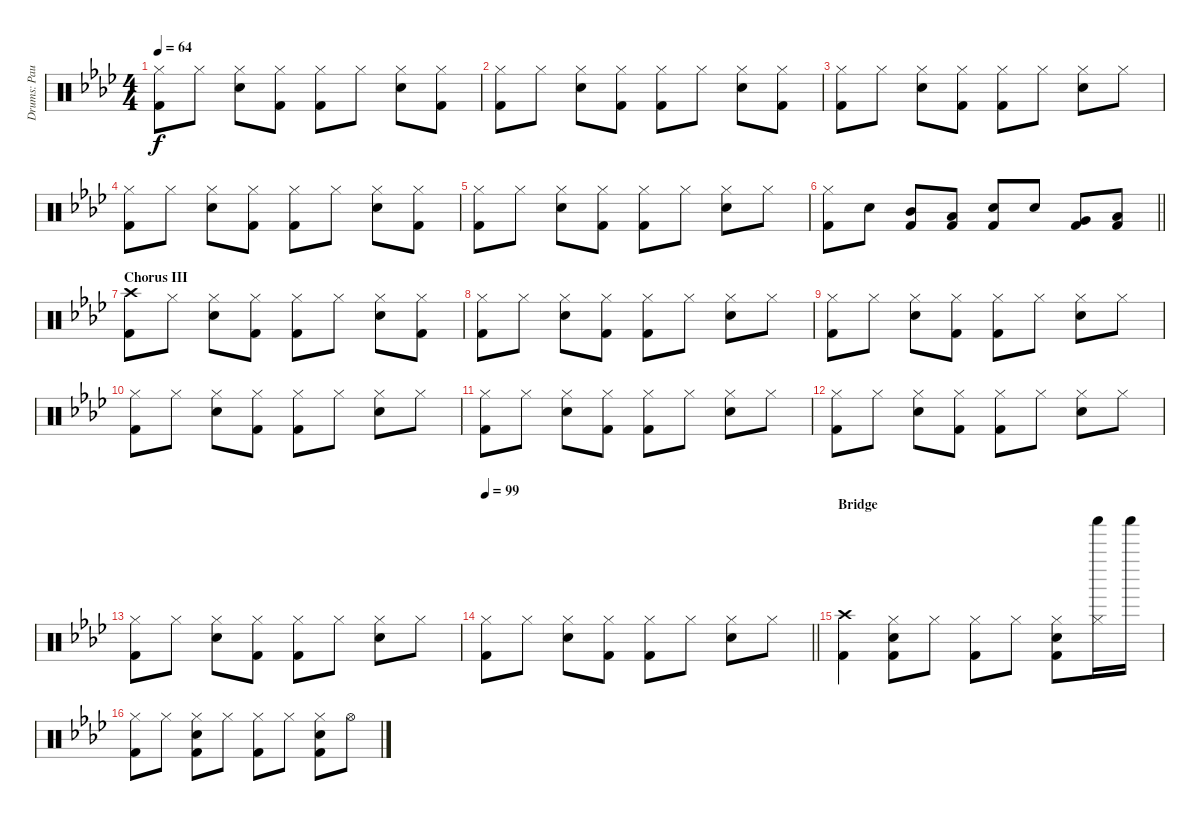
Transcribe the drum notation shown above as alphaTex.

\track ("Drums: Paulinho" "Drums: Pau") {instrument percussion}
\staff {score}
\articulation defaults
\ts (4 4)
\tempo 64
\clef neutral
\ks ab
("Hi-Hat (closed)" "Kick (hit) 2").8{dy f} "Hi-Hat (closed)".8 ("Hi-Hat (closed)" "Electric Snare (hit)").8 ("Hi-Hat (closed)" "Kick (hit) 2").8 ("Hi-Hat (closed)" "Kick (hit) 2").8 "Hi-Hat (closed)".8 ("Hi-Hat (closed)" "Electric Snare (hit)").8 ("Hi-Hat (closed)" "Kick (hit) 2").8 |
("Hi-Hat (closed)" "Kick (hit) 2").8 "Hi-Hat (closed)".8 ("Hi-Hat (closed)" "Electric Snare (hit)").8 ("Hi-Hat (closed)" "Kick (hit) 2").8 ("Hi-Hat (closed)" "Kick (hit) 2").8 "Hi-Hat (closed)".8 ("Hi-Hat (closed)" "Electric Snare (hit)").8 ("Hi-Hat (closed)" "Kick (hit) 2").8 |
("Hi-Hat (closed)" "Kick (hit) 2").8 "Hi-Hat (closed)".8 ("Hi-Hat (closed)" "Electric Snare (hit)").8 ("Hi-Hat (closed)" "Kick (hit) 2").8 ("Hi-Hat (closed)" "Kick (hit) 2").8 "Hi-Hat (closed)".8 ("Hi-Hat (closed)" "Electric Snare (hit)").8 "Hi-Hat (closed)".8 |
("Hi-Hat (closed)" "Kick (hit) 2").8 "Hi-Hat (closed)".8 ("Hi-Hat (closed)" "Electric Snare (hit)").8 ("Hi-Hat (closed)" "Kick (hit) 2").8 ("Hi-Hat (closed)" "Kick (hit) 2").8 "Hi-Hat (closed)".8 ("Hi-Hat (closed)" "Electric Snare (hit)").8 ("Hi-Hat (closed)" "Kick (hit) 2").8 |
("Hi-Hat (closed)" "Kick (hit) 2").8 "Hi-Hat (closed)".8 ("Hi-Hat (closed)" "Electric Snare (hit)").8 ("Hi-Hat (closed)" "Kick (hit) 2").8 ("Hi-Hat (closed)" "Kick (hit) 2").8 "Hi-Hat (closed)".8 ("Hi-Hat (closed)" "Electric Snare (hit)").8 "Hi-Hat (closed)".8 |
\barLineRight lightlight
("Hi-Hat (closed)" "Kick (hit) 2").8 "Electric Snare (hit)".8 ("Mid Tom (hit)" "Kick (hit) 2").8 ("Low Tom (hit)" "Kick (hit) 2").8 ("Electric Snare (hit)" "Kick (hit) 2").8 "Electric Snare (hit)".8 ("Very Low Tom (hit)" "Kick (hit) 2").8 ("Low Floor Tom (hit)" "Kick (hit) 2").8 |
\section ("" "Chorus III")
("Crash high (hit)" "Kick (hit) 2").8 "Hi-Hat (closed)".8 ("Hi-Hat (closed)" "Electric Snare (hit)").8 ("Hi-Hat (closed)" "Kick (hit) 2").8 ("Hi-Hat (closed)" "Kick (hit) 2").8 "Hi-Hat (closed)".8 ("Hi-Hat (closed)" "Electric Snare (hit)").8 ("Hi-Hat (closed)" "Kick (hit) 2").8 |
("Hi-Hat (closed)" "Kick (hit) 2").8 "Hi-Hat (closed)".8 ("Hi-Hat (closed)" "Electric Snare (hit)").8 ("Hi-Hat (closed)" "Kick (hit) 2").8 ("Hi-Hat (closed)" "Kick (hit) 2").8 "Hi-Hat (closed)".8 ("Hi-Hat (closed)" "Electric Snare (hit)").8 "Hi-Hat (closed)".8 |
("Hi-Hat (closed)" "Kick (hit) 2").8 "Hi-Hat (closed)".8 ("Hi-Hat (closed)" "Electric Snare (hit)").8 ("Hi-Hat (closed)" "Kick (hit) 2").8 ("Hi-Hat (closed)" "Kick (hit) 2").8 "Hi-Hat (closed)".8 ("Hi-Hat (closed)" "Electric Snare (hit)").8 "Hi-Hat (closed)".8 |
("Hi-Hat (closed)" "Kick (hit) 2").8 "Hi-Hat (closed)".8 ("Hi-Hat (closed)" "Electric Snare (hit)").8 ("Hi-Hat (closed)" "Kick (hit) 2").8 ("Hi-Hat (closed)" "Kick (hit) 2").8 "Hi-Hat (closed)".8 ("Hi-Hat (closed)" "Electric Snare (hit)").8 "Hi-Hat (closed)".8 |
("Hi-Hat (closed)" "Kick (hit) 2").8 "Hi-Hat (closed)".8 ("Hi-Hat (closed)" "Electric Snare (hit)").8 ("Hi-Hat (closed)" "Kick (hit) 2").8 ("Hi-Hat (closed)" "Kick (hit) 2").8 "Hi-Hat (closed)".8 ("Hi-Hat (closed)" "Electric Snare (hit)").8 "Hi-Hat (closed)".8 |
("Hi-Hat (closed)" "Kick (hit) 2").8 "Hi-Hat (closed)".8 ("Hi-Hat (closed)" "Electric Snare (hit)").8 ("Hi-Hat (closed)" "Kick (hit) 2").8 ("Hi-Hat (closed)" "Kick (hit) 2").8 "Hi-Hat (closed)".8 ("Hi-Hat (closed)" "Electric Snare (hit)").8 "Hi-Hat (closed)".8 |
("Hi-Hat (closed)" "Kick (hit) 2").8 "Hi-Hat (closed)".8 ("Hi-Hat (closed)" "Electric Snare (hit)").8 ("Hi-Hat (closed)" "Kick (hit) 2").8 ("Hi-Hat (closed)" "Kick (hit) 2").8 "Hi-Hat (closed)".8 ("Hi-Hat (closed)" "Electric Snare (hit)").8 "Hi-Hat (closed)".8 |
\tempo 99
\barLineRight lightlight
("Hi-Hat (closed)" "Kick (hit) 2").8 "Hi-Hat (closed)".8 ("Hi-Hat (closed)" "Electric Snare (hit)").8 ("Hi-Hat (closed)" "Kick (hit) 2").8 ("Hi-Hat (closed)" "Kick (hit) 2").8 "Hi-Hat (closed)".8 ("Hi-Hat (closed)" "Electric Snare (hit)").8 "Hi-Hat (closed)".8 |
\section ("" "Bridge")
("Crash high (hit)" "Kick (hit) 2").4 ("Hi-Hat (closed)" "Electric Snare (hit)" "Kick (hit) 2").8 "Hi-Hat (closed)".8 ("Hi-Hat (closed)" "Kick (hit) 2").8 "Hi-Hat (closed)".8 ("Hi-Hat (closed)" "Electric Snare (hit)" "Kick (hit) 2").8 ("Shaker (hit)" "Hi-Hat (closed)").16 "Shaker (hit)".16 |
("Hi-Hat (closed)" "Kick (hit) 2").8 "Hi-Hat (closed)".8 ("Hi-Hat (closed)" "Electric Snare (hit)" "Kick (hit) 2").8 "Hi-Hat (closed)".8 ("Hi-Hat (closed)" "Kick (hit) 2").8 "Hi-Hat (closed)".8 ("Hi-Hat (closed)" "Electric Snare (hit)" "Kick (hit) 2").8 "Hi-Hat (open)".8
